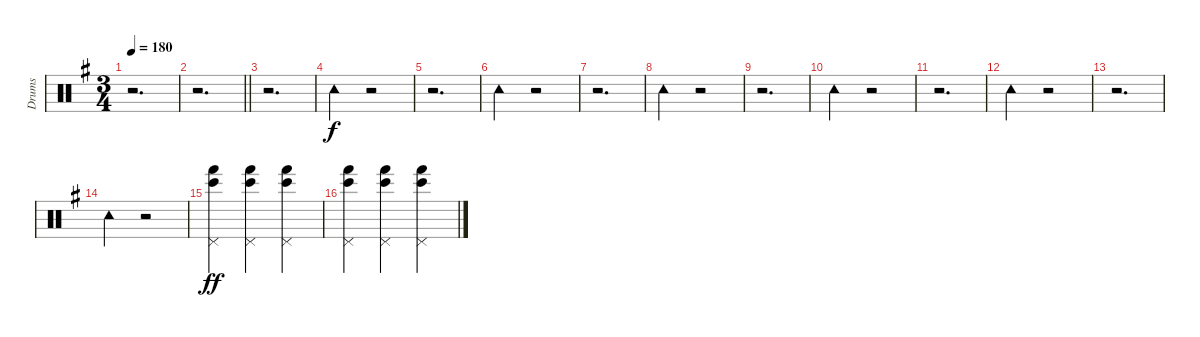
\track ("Drums" "Drums") {instrument percussion bank 24}
\staff {score}
\articulation defaults
\ts (3 4)
\tempo 180
\clef neutral
\ks eminor
r.2{d dy f} |
\barLineRight lightlight
r.2{d} |
r.2{d} |
"Tambourine (hit)".4 r.2 |
r.2{d} |
"Tambourine (hit)".4 r.2 |
r.2{d} |
"Tambourine (hit)".4 r.2 |
r.2{d} |
"Tambourine (hit)".4 r.2 |
r.2{d} |
"Tambourine (hit)".4 r.2 |
r.2{d} |
"Tambourine (hit)".4 r.2 |
("Pedal Hi-Hat (hit)" "Bongo High (hit)" "Hand (hit)").4{dy ff} ("Pedal Hi-Hat (hit)" "Bongo High (hit)" "Hand (hit)").4 ("Pedal Hi-Hat (hit)" "Bongo High (hit)" "Hand (hit)").4 |
("Pedal Hi-Hat (hit)" "Bongo High (hit)" "Hand (hit)").4 ("Pedal Hi-Hat (hit)" "Bongo High (hit)" "Hand (hit)").4 ("Pedal Hi-Hat (hit)" "Bongo High (hit)" "Hand (hit)").4
